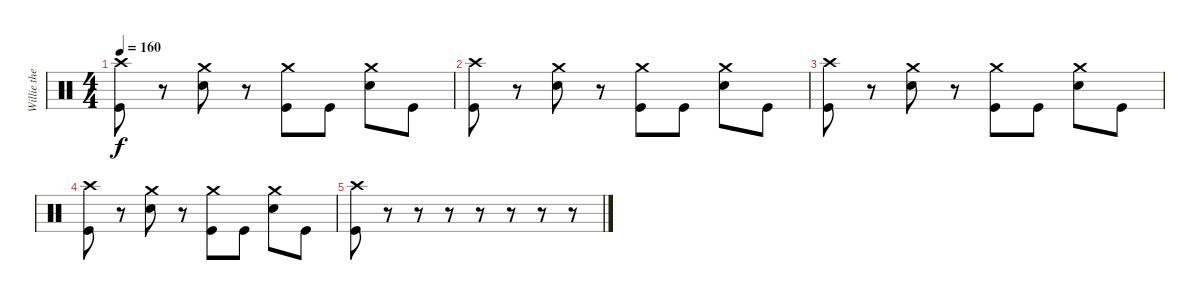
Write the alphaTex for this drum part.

\track ("Willie the new guy" "Willie the") {instrument percussion}
\staff {score}
\articulation defaults
\ts (4 4)
\tempo 160
\clef neutral
\ks c
("Crash high (hit)" "Kick (hit)").8{dy f} r.8 ("Crash medium (hit)" "Snare (hit) 2").8 r.8 ("Crash medium (hit)" "Kick (hit)").8 "Kick (hit)".8 ("Crash medium (hit)" "Snare (hit) 2").8 "Kick (hit)".8 |
("Crash high (hit)" "Kick (hit)").8 r.8 ("Crash medium (hit)" "Snare (hit) 2").8 r.8 ("Crash medium (hit)" "Kick (hit)").8 "Kick (hit)".8 ("Crash medium (hit)" "Snare (hit) 2").8 "Kick (hit)".8 |
("Crash high (hit)" "Kick (hit)").8 r.8 ("Crash medium (hit)" "Snare (hit) 2").8 r.8 ("Crash medium (hit)" "Kick (hit)").8 "Kick (hit)".8 ("Crash medium (hit)" "Snare (hit) 2").8 "Kick (hit)".8 |
("Crash high (hit)" "Kick (hit)").8 r.8 ("Crash medium (hit)" "Snare (hit) 2").8 r.8 ("Crash medium (hit)" "Kick (hit)").8 "Kick (hit)".8 ("Crash medium (hit)" "Snare (hit) 2").8 "Kick (hit)".8 |
("Crash high (hit)" "Kick (hit)").8 r.8 r.8 r.8 r.8 r.8 r.8 r.8
